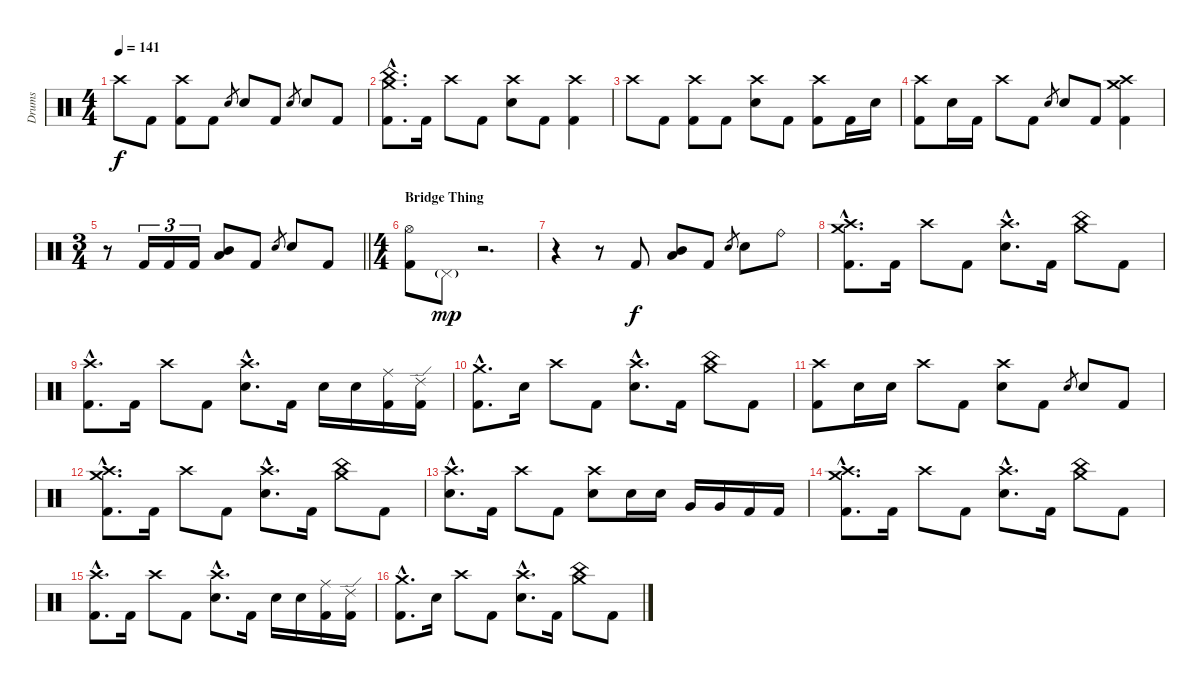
\track ("Drums" "Drums") {instrument percussion}
\staff {score}
\articulation defaults
\ts (4 4)
\tempo 141
\clef neutral
\ks c "Crash high (hit)".8{dy f} "Kick (hit) 2".8
("Crash high (hit)" "Kick (hit) 2").8 "Kick (hit) 2".8 "Electric Snare (hit)".8{gr} "Electric Snare (hit)".8 "Kick (hit) 2".8 "Electric Snare (hit)".8{gr} "Electric Snare (hit)".8 "Kick (hit) 2".8 |
("Crash medium (hit)"{hac} "China (hit)"{hac} "Kick (hit) 2"{hac}).8{d} "Kick (hit) 2".16 "Crash high (hit)".8 "Kick (hit) 2".8 ("Crash high (hit)" "Electric Snare (hit)").8 "Kick (hit) 2".8 ("Crash high (hit)" "Kick (hit) 2").4 |
"Crash high (hit)".8 "Kick (hit) 2".8 ("Crash high (hit)" "Kick (hit) 2").8 "Kick (hit) 2".8 ("Crash high (hit)" "Electric Snare (hit)").8 "Kick (hit) 2".8 ("Crash high (hit)" "Kick (hit) 2").8 "Kick (hit) 2".16 "Electric Snare (hit)".16 |
("Crash high (hit)" "Kick (hit) 2").8 "Electric Snare (hit)".16 "Kick (hit) 2".16 "Crash high (hit)".8 "Kick (hit) 2".8 "Electric Snare (hit)".8{gr} "Electric Snare (hit)".8 "Kick (hit) 2".8 ("Crash high (hit)" "Crash medium (hit)" "Kick (hit) 2").4 |
\ts (3 4)
\barLineRight lightlight
r.8 "Kick (hit) 2".16{tu (3 2)} "Kick (hit) 2".16{tu (3 2)} "Kick (hit) 2".16{tu (3 2)} ("Mid Tom (hit)" "Low Floor Tom (hit)").8{bu 60} "Kick (hit) 2".8 "Electric Snare (hit)".8{gr} "Electric Snare (hit)".8 "Kick (hit) 2".8 |
\ts (4 4)
\section ("" "Bridge Thing")
("Hi-Hat (open)" "Kick (hit) 2").8 "Pedal Hi-Hat (hit)"{g}.8{dy mp} r.2{d} |
r.4 r.8 "Kick (hit) 2".8{dy f} ("Mid Tom (hit)" "Low Floor Tom (hit)").8 "Kick (hit) 2".8 "Electric Snare (hit)".8{gr} "Electric Snare (hit)".8 "Ride (bell)".8 |
("Crash high (hit)"{hac} "Crash medium (hit)"{hac} "Kick (hit) 2"{hac}).8{d} "Kick (hit) 2".16 "Crash high (hit)".8 "Kick (hit) 2".8 ("Crash high (hit)"{hac} "Electric Snare (hit)"{hac}).8{d} "Kick (hit) 2".16 ("Crash medium (hit)" "China (hit)").8 "Kick (hit) 2".8 |
("Crash high (hit)"{hac} "Kick (hit) 2"{hac}).8{d} "Kick (hit) 2".16 "Crash high (hit)".8 "Kick (hit) 2".8 ("Crash high (hit)"{hac} "Electric Snare (hit)"{hac}).8{d} "Kick (hit) 2".16 "Electric Snare (hit)".16 "Electric Snare (hit)".16 ("Ride (middle)" "Kick (hit) 2").16 ("Ride (edge) 2" "Kick (hit) 2").16 |
("Crash medium (hit)"{hac} "Kick (hit) 2"{hac}).8{d} "Electric Snare (hit)".16 "Crash high (hit)".8 "Kick (hit) 2".8 ("Crash high (hit)"{hac} "Electric Snare (hit)"{hac}).8{d} "Kick (hit) 2".16 ("Crash medium (hit)" "China (hit)").8 "Kick (hit) 2".8 |
("Crash high (hit)" "Kick (hit) 2").8 "Electric Snare (hit)".16 "Electric Snare (hit)".16 "Crash high (hit)".8 "Kick (hit) 2".8 ("Crash high (hit)" "Electric Snare (hit)").8 "Kick (hit) 2".8 "Electric Snare (hit)".8{gr} "Electric Snare (hit)".8 "Kick (hit) 2".8 |
("Crash high (hit)"{hac} "Crash medium (hit)"{hac} "Kick (hit) 2"{hac}).8{d} "Kick (hit) 2".16 "Crash high (hit)".8 "Kick (hit) 2".8 ("Crash high (hit)"{hac} "Electric Snare (hit)"{hac}).8{d} "Kick (hit) 2".16 ("Crash medium (hit)" "China (hit)").8 "Kick (hit) 2".8 |
("Crash high (hit)"{hac} "Electric Snare (hit)"{hac}).8{d} "Kick (hit) 2".16 "Crash high (hit)".8 "Kick (hit) 2".8 ("Crash high (hit)" "Electric Snare (hit)").8 "Electric Snare (hit)".16 "Electric Snare (hit)".16 "Very Low Tom (hit)".16 "Very Low Tom (hit)".16 "Kick (hit) 2".16 "Kick (hit) 2".16 |
("Crash high (hit)"{hac} "Crash medium (hit)"{hac} "Kick (hit) 2"{hac}).8{d} "Kick (hit) 2".16 "Crash high (hit)".8 "Kick (hit) 2".8 ("Crash high (hit)"{hac} "Electric Snare (hit)"{hac}).8{d} "Kick (hit) 2".16 ("Crash medium (hit)" "China (hit)").8 "Kick (hit) 2".8 |
("Crash high (hit)"{hac} "Kick (hit) 2"{hac}).8{d} "Kick (hit) 2".16 "Crash high (hit)".8 "Kick (hit) 2".8 ("Crash high (hit)"{hac} "Electric Snare (hit)"{hac}).8{d} "Kick (hit) 2".16 "Electric Snare (hit)".16 "Electric Snare (hit)".16 ("Ride (middle)" "Kick (hit) 2").16 ("Ride (edge) 2" "Kick (hit) 2").16 |
("Crash medium (hit)"{hac} "Kick (hit) 2"{hac}).8{d} "Electric Snare (hit)".16 "Crash high (hit)".8 "Kick (hit) 2".8 ("Crash high (hit)"{hac} "Electric Snare (hit)"{hac}).8{d} "Kick (hit) 2".16 ("Crash medium (hit)" "China (hit)").8 "Kick (hit) 2".8
